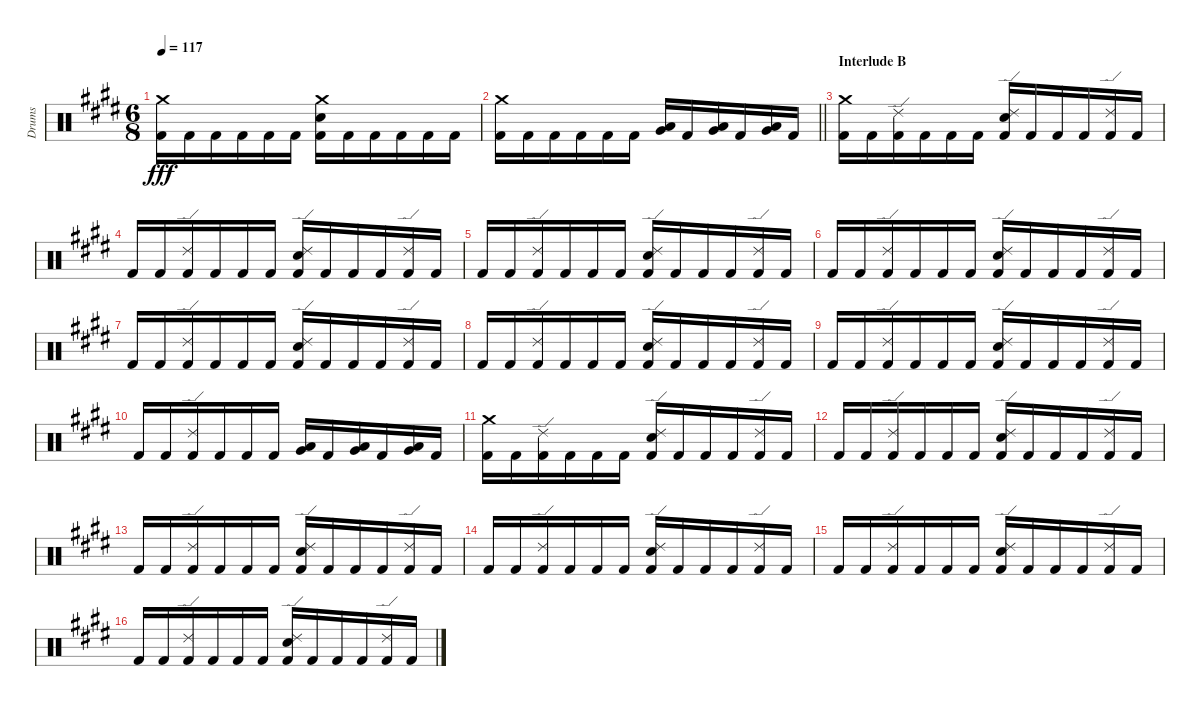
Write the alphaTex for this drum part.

\track ("Drums" "Drums") {instrument percussion}
\staff {score}
\articulation defaults
\ts (6 8)
\tempo 117
\clef neutral
\ks c#minor
("Crash medium (hit)" "Kick (hit) 2").16{dy fff} "Kick (hit) 2".16 "Kick (hit) 2".16 "Kick (hit) 2".16 "Kick (hit) 2".16 "Kick (hit) 2".16 ("Crash medium (hit)" "Electric Snare (hit)" "Kick (hit) 2").16 "Kick (hit) 2".16 "Kick (hit) 2".16 "Kick (hit) 2".16 "Kick (hit) 2".16 "Kick (hit) 2".16 |
\barLineRight lightlight
("Crash medium (hit)" "Kick (hit) 2").16 "Kick (hit) 2".16 "Kick (hit) 2".16 "Kick (hit) 2".16 "Kick (hit) 2".16 "Kick (hit) 2".16 ("Very Low Tom (hit)" "Low Floor Tom (hit)").16 "Kick (hit) 2".16 ("Very Low Tom (hit)" "Low Floor Tom (hit)").16 "Kick (hit) 2".16 ("Very Low Tom (hit)" "Low Floor Tom (hit)").16 "Kick (hit) 2".16 |
\section ("" "Interlude B")
("Crash medium (hit)" "Kick (hit) 2").16 "Kick (hit) 2".16 ("Ride (edge) 2" "Kick (hit) 2").16 "Kick (hit) 2".16 "Kick (hit) 2".16 "Kick (hit) 2".16 ("Ride (edge) 2" "Electric Snare (hit)" "Kick (hit) 2").16 "Kick (hit) 2".16 "Kick (hit) 2".16 "Kick (hit) 2".16 ("Ride (edge) 2" "Kick (hit) 2").16 "Kick (hit) 2".16 |
"Kick (hit) 2".16 "Kick (hit) 2".16 ("Ride (edge) 2" "Kick (hit) 2").16 "Kick (hit) 2".16 "Kick (hit) 2".16 "Kick (hit) 2".16 ("Ride (edge) 2" "Electric Snare (hit)" "Kick (hit) 2").16 "Kick (hit) 2".16 "Kick (hit) 2".16 "Kick (hit) 2".16 ("Ride (edge) 2" "Kick (hit) 2").16 "Kick (hit) 2".16 |
"Kick (hit) 2".16 "Kick (hit) 2".16 ("Ride (edge) 2" "Kick (hit) 2").16 "Kick (hit) 2".16 "Kick (hit) 2".16 "Kick (hit) 2".16 ("Ride (edge) 2" "Electric Snare (hit)" "Kick (hit) 2").16 "Kick (hit) 2".16 "Kick (hit) 2".16 "Kick (hit) 2".16 ("Ride (edge) 2" "Kick (hit) 2").16 "Kick (hit) 2".16 |
"Kick (hit) 2".16 "Kick (hit) 2".16 ("Ride (edge) 2" "Kick (hit) 2").16 "Kick (hit) 2".16 "Kick (hit) 2".16 "Kick (hit) 2".16 ("Ride (edge) 2" "Electric Snare (hit)" "Kick (hit) 2").16 "Kick (hit) 2".16 "Kick (hit) 2".16 "Kick (hit) 2".16 ("Ride (edge) 2" "Kick (hit) 2").16 "Kick (hit) 2".16 |
"Kick (hit) 2".16 "Kick (hit) 2".16 ("Ride (edge) 2" "Kick (hit) 2").16 "Kick (hit) 2".16 "Kick (hit) 2".16 "Kick (hit) 2".16 ("Ride (edge) 2" "Electric Snare (hit)" "Kick (hit) 2").16 "Kick (hit) 2".16 "Kick (hit) 2".16 "Kick (hit) 2".16 ("Ride (edge) 2" "Kick (hit) 2").16 "Kick (hit) 2".16 |
"Kick (hit) 2".16 "Kick (hit) 2".16 ("Ride (edge) 2" "Kick (hit) 2").16 "Kick (hit) 2".16 "Kick (hit) 2".16 "Kick (hit) 2".16 ("Ride (edge) 2" "Electric Snare (hit)" "Kick (hit) 2").16 "Kick (hit) 2".16 "Kick (hit) 2".16 "Kick (hit) 2".16 ("Ride (edge) 2" "Kick (hit) 2").16 "Kick (hit) 2".16 |
"Kick (hit) 2".16 "Kick (hit) 2".16 ("Ride (edge) 2" "Kick (hit) 2").16 "Kick (hit) 2".16 "Kick (hit) 2".16 "Kick (hit) 2".16 ("Ride (edge) 2" "Electric Snare (hit)" "Kick (hit) 2").16 "Kick (hit) 2".16 "Kick (hit) 2".16 "Kick (hit) 2".16 ("Ride (edge) 2" "Kick (hit) 2").16 "Kick (hit) 2".16 |
"Kick (hit) 2".16 "Kick (hit) 2".16 ("Ride (edge) 2" "Kick (hit) 2").16 "Kick (hit) 2".16 "Kick (hit) 2".16 "Kick (hit) 2".16 ("Very Low Tom (hit)" "Low Floor Tom (hit)").16 "Kick (hit) 2".16 ("Very Low Tom (hit)" "Low Floor Tom (hit)").16 "Kick (hit) 2".16 ("Very Low Tom (hit)" "Low Floor Tom (hit)").16 "Kick (hit) 2".16 |
("Crash medium (hit)" "Kick (hit) 2").16 "Kick (hit) 2".16 ("Ride (edge) 2" "Kick (hit) 2").16 "Kick (hit) 2".16 "Kick (hit) 2".16 "Kick (hit) 2".16 ("Ride (edge) 2" "Electric Snare (hit)" "Kick (hit) 2").16 "Kick (hit) 2".16 "Kick (hit) 2".16 "Kick (hit) 2".16 ("Ride (edge) 2" "Kick (hit) 2").16 "Kick (hit) 2".16 |
"Kick (hit) 2".16 "Kick (hit) 2".16 ("Ride (edge) 2" "Kick (hit) 2").16 "Kick (hit) 2".16 "Kick (hit) 2".16 "Kick (hit) 2".16 ("Ride (edge) 2" "Electric Snare (hit)" "Kick (hit) 2").16 "Kick (hit) 2".16 "Kick (hit) 2".16 "Kick (hit) 2".16 ("Ride (edge) 2" "Kick (hit) 2").16 "Kick (hit) 2".16 |
"Kick (hit) 2".16 "Kick (hit) 2".16 ("Ride (edge) 2" "Kick (hit) 2").16 "Kick (hit) 2".16 "Kick (hit) 2".16 "Kick (hit) 2".16 ("Ride (edge) 2" "Electric Snare (hit)" "Kick (hit) 2").16 "Kick (hit) 2".16 "Kick (hit) 2".16 "Kick (hit) 2".16 ("Ride (edge) 2" "Kick (hit) 2").16 "Kick (hit) 2".16 |
"Kick (hit) 2".16 "Kick (hit) 2".16 ("Ride (edge) 2" "Kick (hit) 2").16 "Kick (hit) 2".16 "Kick (hit) 2".16 "Kick (hit) 2".16 ("Ride (edge) 2" "Electric Snare (hit)" "Kick (hit) 2").16 "Kick (hit) 2".16 "Kick (hit) 2".16 "Kick (hit) 2".16 ("Ride (edge) 2" "Kick (hit) 2").16 "Kick (hit) 2".16 |
"Kick (hit) 2".16 "Kick (hit) 2".16 ("Ride (edge) 2" "Kick (hit) 2").16 "Kick (hit) 2".16 "Kick (hit) 2".16 "Kick (hit) 2".16 ("Ride (edge) 2" "Electric Snare (hit)" "Kick (hit) 2").16 "Kick (hit) 2".16 "Kick (hit) 2".16 "Kick (hit) 2".16 ("Ride (edge) 2" "Kick (hit) 2").16 "Kick (hit) 2".16 |
"Kick (hit) 2".16 "Kick (hit) 2".16 ("Ride (edge) 2" "Kick (hit) 2").16 "Kick (hit) 2".16 "Kick (hit) 2".16 "Kick (hit) 2".16 ("Ride (edge) 2" "Electric Snare (hit)" "Kick (hit) 2").16 "Kick (hit) 2".16 "Kick (hit) 2".16 "Kick (hit) 2".16 ("Ride (edge) 2" "Kick (hit) 2").16 "Kick (hit) 2".16
